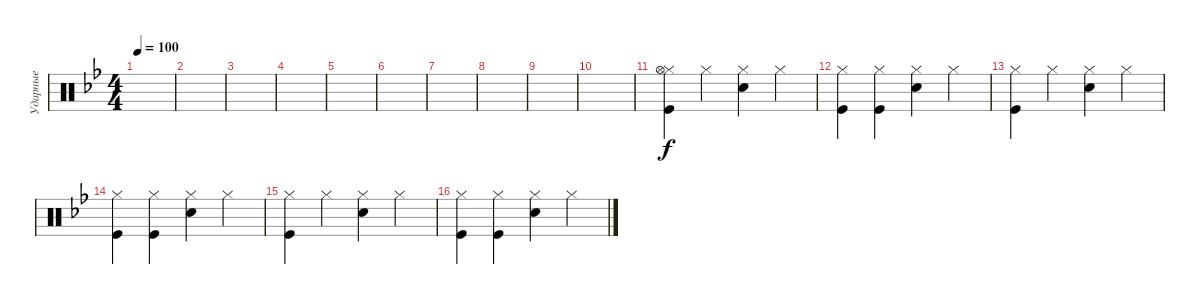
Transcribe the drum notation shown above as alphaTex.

\track ("Ударные" "Ударные") {instrument percussion}
\staff {score}
\articulation defaults
\ts (4 4)
\tempo 100
\clef neutral
\ks gminor
|
|
|
|
|
|
|
|
|
|
("Hi-Hat (closed)" "Hi-Hat (open)" "Kick (hit)").4 "Hi-Hat (closed)".4 ("Hi-Hat (closed)" "Snare (hit) 2").4 "Hi-Hat (closed)".4 |
("Kick (hit)" "Hi-Hat (closed)").4 ("Hi-Hat (closed)" "Kick (hit)").4 ("Hi-Hat (closed)" "Snare (hit) 2").4 "Hi-Hat (closed)".4 |
("Hi-Hat (closed)" "Kick (hit)").4 "Hi-Hat (closed)".4 ("Hi-Hat (closed)" "Snare (hit) 2").4 "Hi-Hat (closed)".4 |
("Kick (hit)" "Hi-Hat (closed)").4 ("Hi-Hat (closed)" "Kick (hit)").4 ("Hi-Hat (closed)" "Snare (hit) 2").4 "Hi-Hat (closed)".4 |
("Hi-Hat (closed)" "Kick (hit)").4 "Hi-Hat (closed)".4 ("Hi-Hat (closed)" "Snare (hit) 2").4 "Hi-Hat (closed)".4 |
("Kick (hit)" "Hi-Hat (closed)").4 ("Hi-Hat (closed)" "Kick (hit)").4 ("Hi-Hat (closed)" "Snare (hit) 2").4 "Hi-Hat (closed)".4
